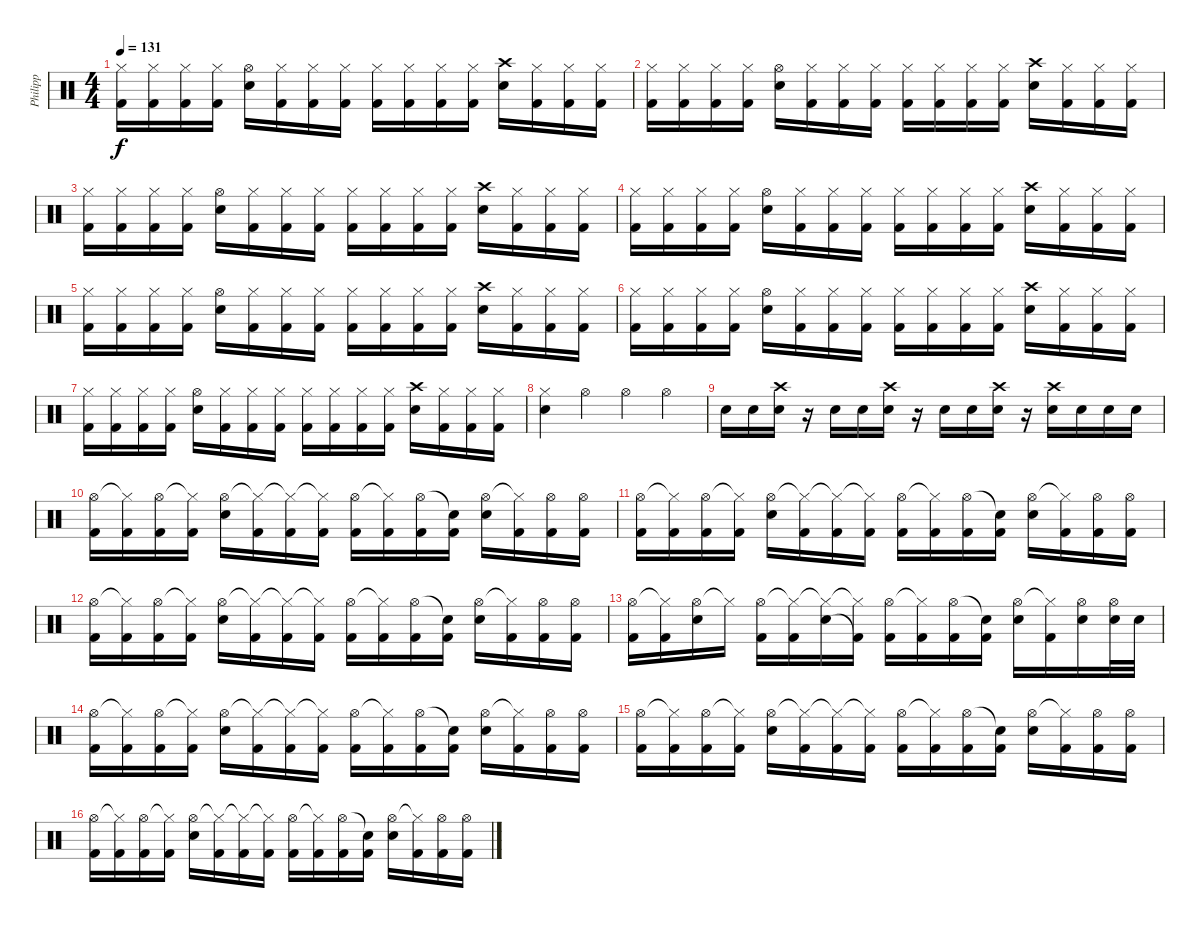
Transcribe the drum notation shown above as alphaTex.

\track ("Philipp" "Philipp") {instrument percussion}
\staff {score}
\articulation defaults
\ts (4 4)
\tempo 131
\clef neutral
\ks c
("Hi-Hat (closed)" "Kick (hit) 2").16{dy f} ("Hi-Hat (closed)" "Kick (hit) 2").16 ("Hi-Hat (closed)" "Kick (hit) 2").16 ("Hi-Hat (closed)" "Kick (hit) 2").16 ("Hi-Hat (open)" "Electric Snare (hit)").16 ("Hi-Hat (closed)" "Kick (hit) 2").16 ("Hi-Hat (closed)" "Kick (hit) 2").16 ("Hi-Hat (closed)" "Kick (hit) 2").16 ("Hi-Hat (closed)" "Kick (hit) 2").16 ("Hi-Hat (closed)" "Kick (hit) 2").16 ("Hi-Hat (closed)" "Kick (hit) 2").16 ("Hi-Hat (closed)" "Kick (hit) 2").16 ("Crash high (hit)" "Electric Snare (hit)").16 ("Hi-Hat (closed)" "Kick (hit) 2").16 ("Hi-Hat (closed)" "Kick (hit) 2").16 ("Hi-Hat (closed)" "Kick (hit) 2").16 |
("Hi-Hat (closed)" "Kick (hit) 2").16 ("Hi-Hat (closed)" "Kick (hit) 2").16 ("Hi-Hat (closed)" "Kick (hit) 2").16 ("Hi-Hat (closed)" "Kick (hit) 2").16 ("Hi-Hat (open)" "Electric Snare (hit)").16 ("Hi-Hat (closed)" "Kick (hit) 2").16 ("Hi-Hat (closed)" "Kick (hit) 2").16 ("Hi-Hat (closed)" "Kick (hit) 2").16 ("Hi-Hat (closed)" "Kick (hit) 2").16 ("Hi-Hat (closed)" "Kick (hit) 2").16 ("Hi-Hat (closed)" "Kick (hit) 2").16 ("Hi-Hat (closed)" "Kick (hit) 2").16 ("Crash high (hit)" "Electric Snare (hit)").16 ("Hi-Hat (closed)" "Kick (hit) 2").16 ("Hi-Hat (closed)" "Kick (hit) 2").16 ("Hi-Hat (closed)" "Kick (hit) 2").16 |
("Hi-Hat (closed)" "Kick (hit) 2").16 ("Hi-Hat (closed)" "Kick (hit) 2").16 ("Hi-Hat (closed)" "Kick (hit) 2").16 ("Hi-Hat (closed)" "Kick (hit) 2").16 ("Hi-Hat (open)" "Electric Snare (hit)").16 ("Hi-Hat (closed)" "Kick (hit) 2").16 ("Hi-Hat (closed)" "Kick (hit) 2").16 ("Hi-Hat (closed)" "Kick (hit) 2").16 ("Hi-Hat (closed)" "Kick (hit) 2").16 ("Hi-Hat (closed)" "Kick (hit) 2").16 ("Hi-Hat (closed)" "Kick (hit) 2").16 ("Hi-Hat (closed)" "Kick (hit) 2").16 ("Crash high (hit)" "Electric Snare (hit)").16 ("Hi-Hat (closed)" "Kick (hit) 2").16 ("Hi-Hat (closed)" "Kick (hit) 2").16 ("Hi-Hat (closed)" "Kick (hit) 2").16 |
("Hi-Hat (closed)" "Kick (hit) 2").16 ("Hi-Hat (closed)" "Kick (hit) 2").16 ("Hi-Hat (closed)" "Kick (hit) 2").16 ("Hi-Hat (closed)" "Kick (hit) 2").16 ("Hi-Hat (open)" "Electric Snare (hit)").16 ("Hi-Hat (closed)" "Kick (hit) 2").16 ("Hi-Hat (closed)" "Kick (hit) 2").16 ("Hi-Hat (closed)" "Kick (hit) 2").16 ("Hi-Hat (closed)" "Kick (hit) 2").16 ("Hi-Hat (closed)" "Kick (hit) 2").16 ("Hi-Hat (closed)" "Kick (hit) 2").16 ("Hi-Hat (closed)" "Kick (hit) 2").16 ("Crash high (hit)" "Electric Snare (hit)").16 ("Hi-Hat (closed)" "Kick (hit) 2").16 ("Hi-Hat (closed)" "Kick (hit) 2").16 ("Hi-Hat (closed)" "Kick (hit) 2").16 |
("Hi-Hat (closed)" "Kick (hit) 2").16 ("Hi-Hat (closed)" "Kick (hit) 2").16 ("Hi-Hat (closed)" "Kick (hit) 2").16 ("Hi-Hat (closed)" "Kick (hit) 2").16 ("Hi-Hat (open)" "Electric Snare (hit)").16 ("Hi-Hat (closed)" "Kick (hit) 2").16 ("Hi-Hat (closed)" "Kick (hit) 2").16 ("Hi-Hat (closed)" "Kick (hit) 2").16 ("Hi-Hat (closed)" "Kick (hit) 2").16 ("Hi-Hat (closed)" "Kick (hit) 2").16 ("Hi-Hat (closed)" "Kick (hit) 2").16 ("Hi-Hat (closed)" "Kick (hit) 2").16 ("Crash high (hit)" "Electric Snare (hit)").16 ("Hi-Hat (closed)" "Kick (hit) 2").16 ("Hi-Hat (closed)" "Kick (hit) 2").16 ("Hi-Hat (closed)" "Kick (hit) 2").16 |
("Hi-Hat (closed)" "Kick (hit) 2").16 ("Hi-Hat (closed)" "Kick (hit) 2").16 ("Hi-Hat (closed)" "Kick (hit) 2").16 ("Hi-Hat (closed)" "Kick (hit) 2").16 ("Hi-Hat (open)" "Electric Snare (hit)").16 ("Hi-Hat (closed)" "Kick (hit) 2").16 ("Hi-Hat (closed)" "Kick (hit) 2").16 ("Hi-Hat (closed)" "Kick (hit) 2").16 ("Hi-Hat (closed)" "Kick (hit) 2").16 ("Hi-Hat (closed)" "Kick (hit) 2").16 ("Hi-Hat (closed)" "Kick (hit) 2").16 ("Hi-Hat (closed)" "Kick (hit) 2").16 ("Crash high (hit)" "Electric Snare (hit)").16 ("Hi-Hat (closed)" "Kick (hit) 2").16 ("Hi-Hat (closed)" "Kick (hit) 2").16 ("Hi-Hat (closed)" "Kick (hit) 2").16 |
("Hi-Hat (closed)" "Kick (hit) 2").16 ("Hi-Hat (closed)" "Kick (hit) 2").16 ("Hi-Hat (closed)" "Kick (hit) 2").16 ("Hi-Hat (closed)" "Kick (hit) 2").16 ("Hi-Hat (open)" "Electric Snare (hit)").16 ("Hi-Hat (closed)" "Kick (hit) 2").16 ("Hi-Hat (closed)" "Kick (hit) 2").16 ("Hi-Hat (closed)" "Kick (hit) 2").16 ("Hi-Hat (closed)" "Kick (hit) 2").16 ("Hi-Hat (closed)" "Kick (hit) 2").16 ("Hi-Hat (closed)" "Kick (hit) 2").16 ("Hi-Hat (closed)" "Kick (hit) 2").16 ("Crash high (hit)" "Electric Snare (hit)").16 ("Hi-Hat (closed)" "Kick (hit) 2").16 ("Hi-Hat (closed)" "Kick (hit) 2").16 ("Hi-Hat (closed)" "Kick (hit) 2").16 |
("Hi-Hat (closed)" "Electric Snare (hit)").4 "Hi-Hat (open)".4 "Hi-Hat (open)".4 "Hi-Hat (open)".4 |
"Electric Snare (hit)".16 "Electric Snare (hit)".16 ("Crash high (hit)" "Electric Snare (hit)").16 r.16 "Electric Snare (hit)".16 "Electric Snare (hit)".16 ("Crash high (hit)" "Electric Snare (hit)").16 r.16 "Electric Snare (hit)".16 "Electric Snare (hit)".16 ("Crash high (hit)" "Electric Snare (hit)").16 r.16 ("Crash high (hit)" "Electric Snare (hit)").16 "Electric Snare (hit)".16 "Electric Snare (hit)".16 "Electric Snare (hit)".16 |
("Hi-Hat (open)" "Kick (hit) 2").16 ("Hi-Hat (closed)"{t} "Kick (hit) 2").16 ("Hi-Hat (open)" "Kick (hit) 2").16 ("Hi-Hat (closed)"{t} "Kick (hit) 2").16 ("Hi-Hat (open)" "Electric Snare (hit)").16 ("Hi-Hat (closed)"{t} "Kick (hit) 2").16 ("Hi-Hat (closed)"{t} "Kick (hit) 2").16 ("Hi-Hat (closed)"{t} "Kick (hit) 2").16 ("Hi-Hat (open)" "Kick (hit) 2").16 ("Hi-Hat (closed)"{t} "Kick (hit) 2").16 ("Hi-Hat (open)" "Kick (hit) 2").16 ("Snare (hit)"{t} "Kick (hit) 2").16 ("Hi-Hat (open)" "Electric Snare (hit)").16 ("Hi-Hat (closed)"{t} "Kick (hit) 2").16 ("Hi-Hat (open)" "Kick (hit) 2").16 ("Hi-Hat (open)" "Kick (hit) 2").16 |
("Hi-Hat (open)" "Kick (hit) 2").16 ("Hi-Hat (closed)"{t} "Kick (hit) 2").16 ("Hi-Hat (open)" "Kick (hit) 2").16 ("Hi-Hat (closed)"{t} "Kick (hit) 2").16 ("Hi-Hat (open)" "Electric Snare (hit)").16 ("Hi-Hat (closed)"{t} "Kick (hit) 2").16 ("Hi-Hat (closed)"{t} "Kick (hit) 2").16 ("Hi-Hat (closed)"{t} "Kick (hit) 2").16 ("Hi-Hat (open)" "Kick (hit) 2").16 ("Hi-Hat (closed)"{t} "Kick (hit) 2").16 ("Hi-Hat (open)" "Kick (hit) 2").16 ("Snare (hit)"{t} "Kick (hit) 2").16 ("Hi-Hat (open)" "Electric Snare (hit)").16 ("Hi-Hat (closed)"{t} "Kick (hit) 2").16 ("Hi-Hat (open)" "Kick (hit) 2").16 ("Hi-Hat (open)" "Kick (hit) 2").16 |
("Hi-Hat (open)" "Kick (hit) 2").16 ("Hi-Hat (closed)"{t} "Kick (hit) 2").16 ("Hi-Hat (open)" "Kick (hit) 2").16 ("Hi-Hat (closed)"{t} "Kick (hit) 2").16 ("Hi-Hat (open)" "Electric Snare (hit)").16 ("Hi-Hat (closed)"{t} "Kick (hit) 2").16 ("Hi-Hat (closed)"{t} "Kick (hit) 2").16 ("Hi-Hat (closed)"{t} "Kick (hit) 2").16 ("Hi-Hat (open)" "Kick (hit) 2").16 ("Hi-Hat (closed)"{t} "Kick (hit) 2").16 ("Hi-Hat (open)" "Kick (hit) 2").16 ("Snare (hit)"{t} "Kick (hit) 2").16 ("Hi-Hat (open)" "Electric Snare (hit)").16 ("Hi-Hat (closed)"{t} "Kick (hit) 2").16 ("Hi-Hat (open)" "Kick (hit) 2").16 ("Hi-Hat (open)" "Kick (hit) 2").16 |
("Hi-Hat (open)" "Kick (hit) 2").16 ("Hi-Hat (closed)"{t} "Kick (hit) 2").16 ("Hi-Hat (open)" "Electric Snare (hit)").16 "Hi-Hat (closed)"{t}.16 ("Hi-Hat (open)" "Kick (hit) 2").16 ("Hi-Hat (closed)"{t} "Kick (hit) 2").16 ("Hi-Hat (closed)"{t} "Electric Snare (hit)").16 ("Hi-Hat (closed)"{t} "Kick (hit) 2"{t}).16 ("Hi-Hat (open)" "Kick (hit) 2").16 ("Hi-Hat (closed)"{t} "Kick (hit) 2").16 ("Hi-Hat (open)" "Kick (hit) 2").16 ("Snare (hit)"{t} "Kick (hit) 2").16 ("Hi-Hat (open)" "Electric Snare (hit)").16 ("Hi-Hat (closed)"{t} "Kick (hit) 2").16 ("Hi-Hat (open)" "Electric Snare (hit)").16 ("Hi-Hat (open)" "Electric Snare (hit)").32 "Electric Snare (hit)".32 |
("Hi-Hat (open)" "Kick (hit) 2").16 ("Hi-Hat (closed)"{t} "Kick (hit) 2").16 ("Hi-Hat (open)" "Kick (hit) 2").16 ("Hi-Hat (closed)"{t} "Kick (hit) 2").16 ("Hi-Hat (open)" "Electric Snare (hit)").16 ("Hi-Hat (closed)"{t} "Kick (hit) 2").16 ("Hi-Hat (closed)"{t} "Kick (hit) 2").16 ("Hi-Hat (closed)"{t} "Kick (hit) 2").16 ("Hi-Hat (open)" "Kick (hit) 2").16 ("Hi-Hat (closed)"{t} "Kick (hit) 2").16 ("Hi-Hat (open)" "Kick (hit) 2").16 ("Snare (hit)"{t} "Kick (hit) 2").16 ("Hi-Hat (open)" "Electric Snare (hit)").16 ("Hi-Hat (closed)"{t} "Kick (hit) 2").16 ("Hi-Hat (open)" "Kick (hit) 2").16 ("Hi-Hat (open)" "Kick (hit) 2").16 |
("Hi-Hat (open)" "Kick (hit) 2").16 ("Hi-Hat (closed)"{t} "Kick (hit) 2").16 ("Hi-Hat (open)" "Kick (hit) 2").16 ("Hi-Hat (closed)"{t} "Kick (hit) 2").16 ("Hi-Hat (open)" "Electric Snare (hit)").16 ("Hi-Hat (closed)"{t} "Kick (hit) 2").16 ("Hi-Hat (closed)"{t} "Kick (hit) 2").16 ("Hi-Hat (closed)"{t} "Kick (hit) 2").16 ("Hi-Hat (open)" "Kick (hit) 2").16 ("Hi-Hat (closed)"{t} "Kick (hit) 2").16 ("Hi-Hat (open)" "Kick (hit) 2").16 ("Snare (hit)"{t} "Kick (hit) 2").16 ("Hi-Hat (open)" "Electric Snare (hit)").16 ("Hi-Hat (closed)"{t} "Kick (hit) 2").16 ("Hi-Hat (open)" "Kick (hit) 2").16 ("Hi-Hat (open)" "Kick (hit) 2").16 |
("Hi-Hat (open)" "Kick (hit) 2").16 ("Hi-Hat (closed)"{t} "Kick (hit) 2").16 ("Hi-Hat (open)" "Kick (hit) 2").16 ("Hi-Hat (closed)"{t} "Kick (hit) 2").16 ("Hi-Hat (open)" "Electric Snare (hit)").16 ("Hi-Hat (closed)"{t} "Kick (hit) 2").16 ("Hi-Hat (closed)"{t} "Kick (hit) 2").16 ("Hi-Hat (closed)"{t} "Kick (hit) 2").16 ("Hi-Hat (open)" "Kick (hit) 2").16 ("Hi-Hat (closed)"{t} "Kick (hit) 2").16 ("Hi-Hat (open)" "Kick (hit) 2").16 ("Snare (hit)"{t} "Kick (hit) 2").16 ("Hi-Hat (open)" "Electric Snare (hit)").16 ("Hi-Hat (closed)"{t} "Kick (hit) 2").16 ("Hi-Hat (open)" "Kick (hit) 2").16 ("Hi-Hat (open)" "Kick (hit) 2").16
